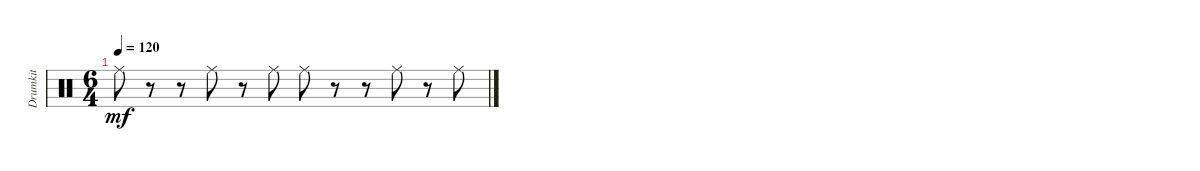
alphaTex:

\track ("Drumkit" "Drumkit") {instrument percussion}
\staff {score}
\articulation defaults
\ts (6 4)
\tempo 120
\clef neutral
\ks c "Ride (middle)".8{dy mf}
r.8 r.8 "Ride (middle)".8 r.8 "Ride (middle)".8 "Ride (middle)".8 r.8 r.8 "Ride (middle)".8 r.8 "Ride (middle)".8
